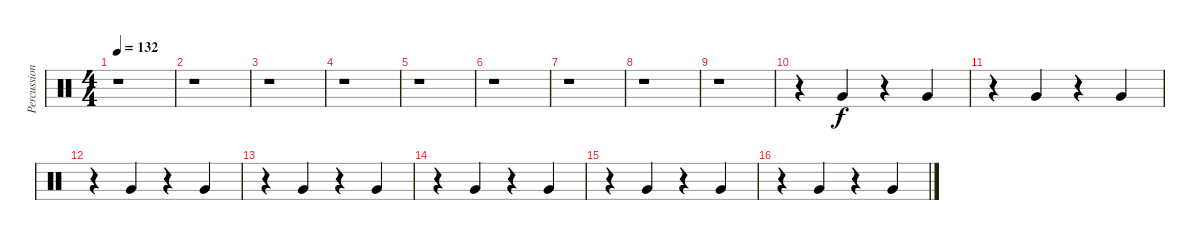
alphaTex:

\track ("Percussion" "Percussion") {instrument percussion}
\staff {score}
\articulation defaults
\ts (4 4)
\tempo 132
\clef neutral
\ks c
r.1{dy f} |
r.1 |
r.1 |
r.1 |
r.1 |
r.1 |
r.1 |
r.1 |
r.1 |
r.4 "Very Low Tom (hit)".4 r.4 "Very Low Tom (hit)".4 |
r.4 "Very Low Tom (hit)".4 r.4 "Very Low Tom (hit)".4 |
r.4 "Very Low Tom (hit)".4 r.4 "Very Low Tom (hit)".4 |
r.4 "Very Low Tom (hit)".4 r.4 "Very Low Tom (hit)".4 |
r.4 "Very Low Tom (hit)".4 r.4 "Very Low Tom (hit)".4 |
r.4 "Very Low Tom (hit)".4 r.4 "Very Low Tom (hit)".4 |
r.4 "Very Low Tom (hit)".4 r.4 "Very Low Tom (hit)".4
